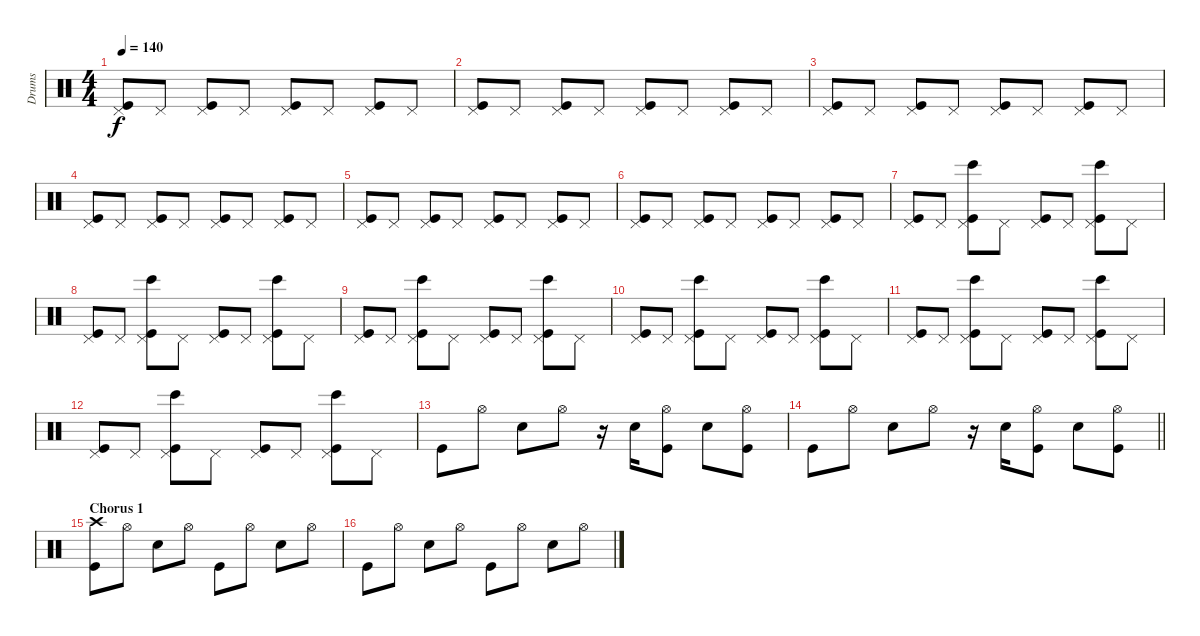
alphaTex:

\track ("Drums" "Drums") {instrument percussion}
\staff {score}
\articulation defaults
\ts (4 4)
\tempo 140
\clef neutral
\ks c
("Pedal Hi-Hat (hit)" "Kick (hit)").8{dy f} "Pedal Hi-Hat (hit)".8 ("Pedal Hi-Hat (hit)" "Kick (hit)").8 "Pedal Hi-Hat (hit)".8 ("Pedal Hi-Hat (hit)" "Kick (hit)").8 "Pedal Hi-Hat (hit)".8 ("Pedal Hi-Hat (hit)" "Kick (hit)").8 "Pedal Hi-Hat (hit)".8 |
("Pedal Hi-Hat (hit)" "Kick (hit)").8 "Pedal Hi-Hat (hit)".8 ("Pedal Hi-Hat (hit)" "Kick (hit)").8 "Pedal Hi-Hat (hit)".8 ("Pedal Hi-Hat (hit)" "Kick (hit)").8 "Pedal Hi-Hat (hit)".8 ("Pedal Hi-Hat (hit)" "Kick (hit)").8 "Pedal Hi-Hat (hit)".8 |
("Pedal Hi-Hat (hit)" "Kick (hit)").8 "Pedal Hi-Hat (hit)".8 ("Pedal Hi-Hat (hit)" "Kick (hit)").8 "Pedal Hi-Hat (hit)".8 ("Pedal Hi-Hat (hit)" "Kick (hit)").8 "Pedal Hi-Hat (hit)".8 ("Pedal Hi-Hat (hit)" "Kick (hit)").8 "Pedal Hi-Hat (hit)".8 |
("Pedal Hi-Hat (hit)" "Kick (hit)").8 "Pedal Hi-Hat (hit)".8 ("Pedal Hi-Hat (hit)" "Kick (hit)").8 "Pedal Hi-Hat (hit)".8 ("Pedal Hi-Hat (hit)" "Kick (hit)").8 "Pedal Hi-Hat (hit)".8 ("Pedal Hi-Hat (hit)" "Kick (hit)").8 "Pedal Hi-Hat (hit)".8 |
("Pedal Hi-Hat (hit)" "Kick (hit)").8 "Pedal Hi-Hat (hit)".8 ("Pedal Hi-Hat (hit)" "Kick (hit)").8 "Pedal Hi-Hat (hit)".8 ("Pedal Hi-Hat (hit)" "Kick (hit)").8 "Pedal Hi-Hat (hit)".8 ("Pedal Hi-Hat (hit)" "Kick (hit)").8 "Pedal Hi-Hat (hit)".8 |
("Pedal Hi-Hat (hit)" "Kick (hit)").8 "Pedal Hi-Hat (hit)".8 ("Pedal Hi-Hat (hit)" "Kick (hit)").8 "Pedal Hi-Hat (hit)".8 ("Pedal Hi-Hat (hit)" "Kick (hit)").8 "Pedal Hi-Hat (hit)".8 ("Pedal Hi-Hat (hit)" "Kick (hit)").8 "Pedal Hi-Hat (hit)".8 |
("Pedal Hi-Hat (hit)" "Kick (hit)").8 "Pedal Hi-Hat (hit)".8 ("Pedal Hi-Hat (hit)" "Bongo High (hit)" "Kick (hit)").8 "Pedal Hi-Hat (hit)".8 ("Pedal Hi-Hat (hit)" "Kick (hit)").8 "Pedal Hi-Hat (hit)".8 ("Pedal Hi-Hat (hit)" "Bongo High (hit)" "Kick (hit)").8 "Pedal Hi-Hat (hit)".8 |
("Pedal Hi-Hat (hit)" "Kick (hit)").8 "Pedal Hi-Hat (hit)".8 ("Pedal Hi-Hat (hit)" "Bongo High (hit)" "Kick (hit)").8 "Pedal Hi-Hat (hit)".8 ("Pedal Hi-Hat (hit)" "Kick (hit)").8 "Pedal Hi-Hat (hit)".8 ("Pedal Hi-Hat (hit)" "Bongo High (hit)" "Kick (hit)").8 "Pedal Hi-Hat (hit)".8 |
("Pedal Hi-Hat (hit)" "Kick (hit)").8 "Pedal Hi-Hat (hit)".8 ("Pedal Hi-Hat (hit)" "Bongo High (hit)" "Kick (hit)").8 "Pedal Hi-Hat (hit)".8 ("Pedal Hi-Hat (hit)" "Kick (hit)").8 "Pedal Hi-Hat (hit)".8 ("Pedal Hi-Hat (hit)" "Bongo High (hit)" "Kick (hit)").8 "Pedal Hi-Hat (hit)".8 |
("Pedal Hi-Hat (hit)" "Kick (hit)").8 "Pedal Hi-Hat (hit)".8 ("Pedal Hi-Hat (hit)" "Bongo High (hit)" "Kick (hit)").8 "Pedal Hi-Hat (hit)".8 ("Pedal Hi-Hat (hit)" "Kick (hit)").8 "Pedal Hi-Hat (hit)".8 ("Pedal Hi-Hat (hit)" "Bongo High (hit)" "Kick (hit)").8 "Pedal Hi-Hat (hit)".8 |
("Pedal Hi-Hat (hit)" "Kick (hit)").8 "Pedal Hi-Hat (hit)".8 ("Pedal Hi-Hat (hit)" "Bongo High (hit)" "Kick (hit)").8 "Pedal Hi-Hat (hit)".8 ("Pedal Hi-Hat (hit)" "Kick (hit)").8 "Pedal Hi-Hat (hit)".8 ("Pedal Hi-Hat (hit)" "Bongo High (hit)" "Kick (hit)").8 "Pedal Hi-Hat (hit)".8 |
("Pedal Hi-Hat (hit)" "Kick (hit)").8 "Pedal Hi-Hat (hit)".8 ("Pedal Hi-Hat (hit)" "Bongo High (hit)" "Kick (hit)").8 "Pedal Hi-Hat (hit)".8 ("Pedal Hi-Hat (hit)" "Kick (hit)").8 "Pedal Hi-Hat (hit)".8 ("Pedal Hi-Hat (hit)" "Bongo High (hit)" "Kick (hit)").8 "Pedal Hi-Hat (hit)".8 |
"Kick (hit)".8 "Hi-Hat (open)".8 "Snare (hit) 2".8 "Hi-Hat (open)".8 r.16 "Snare (hit) 2".16 ("Hi-Hat (open)" "Kick (hit)").8 "Snare (hit) 2".8 ("Hi-Hat (open)" "Kick (hit)").8 |
\barLineRight lightlight "Kick (hit)".8 "Hi-Hat (open)".8 "Snare (hit) 2".8 "Hi-Hat (open)".8
r.16 "Snare (hit) 2".16 ("Hi-Hat (open)" "Kick (hit)").8 "Snare (hit) 2".8 ("Hi-Hat (open)" "Kick (hit)").8 |
\section ("" "Chorus 1")
("Crash high (hit)" "Kick (hit)").8 "Hi-Hat (open)".8 "Snare (hit) 2".8 "Hi-Hat (open)".8 "Kick (hit)".8 "Hi-Hat (open)".8 "Snare (hit) 2".8 "Hi-Hat (open)".8 |
"Kick (hit)".8 "Hi-Hat (open)".8 "Snare (hit) 2".8 "Hi-Hat (open)".8 "Kick (hit)".8 "Hi-Hat (open)".8 "Snare (hit) 2".8 "Hi-Hat (open)".8
